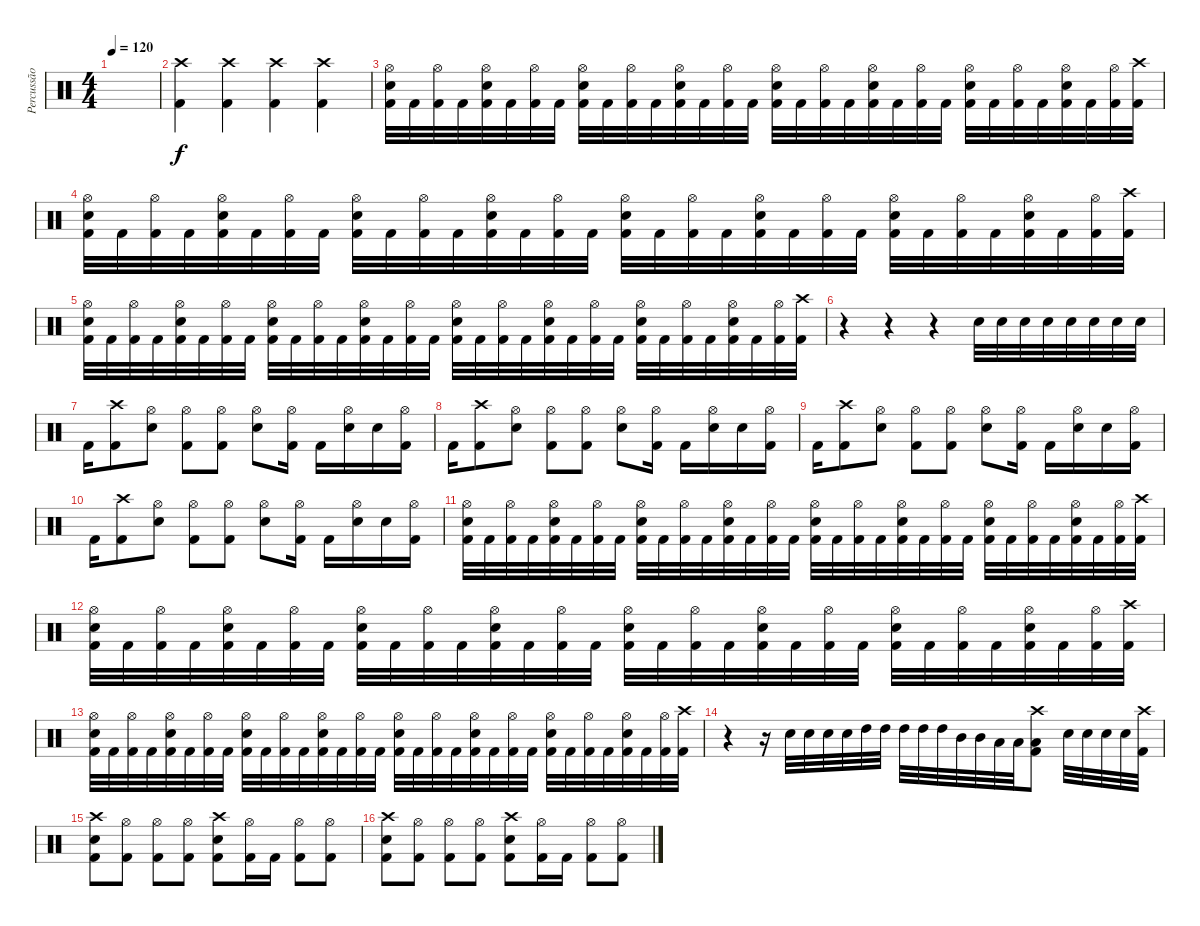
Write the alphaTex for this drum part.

\track ("Percussão" "Percussão") {instrument percussion}
\staff {score}
\articulation defaults
\ts (4 4)
\tempo 120
\clef neutral
\ks c
|
("Crash high (hit)" "Kick (hit) 2").4 ("Crash high (hit)" "Kick (hit) 2").4 ("Crash high (hit)" "Kick (hit) 2").4 ("Crash high (hit)" "Kick (hit) 2").4 |
("Hi-Hat (open)" "Snare (hit) 2" "Kick (hit) 2").32 "Kick (hit) 2".32 ("Hi-Hat (open)" "Kick (hit) 2").32 "Kick (hit) 2".32 ("Hi-Hat (open)" "Snare (hit) 2" "Kick (hit) 2").32 "Kick (hit) 2".32 ("Hi-Hat (open)" "Kick (hit) 2").32 "Kick (hit) 2".32 ("Hi-Hat (open)" "Snare (hit) 2" "Kick (hit) 2").32 "Kick (hit) 2".32 ("Hi-Hat (open)" "Kick (hit) 2").32 "Kick (hit) 2".32 ("Hi-Hat (open)" "Snare (hit) 2" "Kick (hit) 2").32 "Kick (hit) 2".32 ("Hi-Hat (open)" "Kick (hit) 2").32 "Kick (hit) 2".32 ("Hi-Hat (open)" "Snare (hit) 2" "Kick (hit) 2").32 "Kick (hit) 2".32 ("Hi-Hat (open)" "Kick (hit) 2").32 "Kick (hit) 2".32 ("Hi-Hat (open)" "Snare (hit) 2" "Kick (hit) 2").32 "Kick (hit) 2".32 ("Hi-Hat (open)" "Kick (hit) 2").32 "Kick (hit) 2".32 ("Hi-Hat (open)" "Snare (hit) 2" "Kick (hit) 2").32 "Kick (hit) 2".32 ("Hi-Hat (open)" "Kick (hit) 2").32 "Kick (hit) 2".32 ("Hi-Hat (open)" "Snare (hit) 2" "Kick (hit) 2").32 "Kick (hit) 2".32 ("Hi-Hat (open)" "Kick (hit) 2").32 ("Crash high (hit)" "Kick (hit) 2").32 |
("Hi-Hat (open)" "Snare (hit) 2" "Kick (hit) 2").32 "Kick (hit) 2".32 ("Hi-Hat (open)" "Kick (hit) 2").32 "Kick (hit) 2".32 ("Hi-Hat (open)" "Snare (hit) 2" "Kick (hit) 2").32 "Kick (hit) 2".32 ("Hi-Hat (open)" "Kick (hit) 2").32 "Kick (hit) 2".32 ("Hi-Hat (open)" "Snare (hit) 2" "Kick (hit) 2").32 "Kick (hit) 2".32 ("Hi-Hat (open)" "Kick (hit) 2").32 "Kick (hit) 2".32 ("Hi-Hat (open)" "Snare (hit) 2" "Kick (hit) 2").32 "Kick (hit) 2".32 ("Hi-Hat (open)" "Kick (hit) 2").32 "Kick (hit) 2".32 ("Hi-Hat (open)" "Snare (hit) 2" "Kick (hit) 2").32 "Kick (hit) 2".32 ("Hi-Hat (open)" "Kick (hit) 2").32 "Kick (hit) 2".32 ("Hi-Hat (open)" "Snare (hit) 2" "Kick (hit) 2").32 "Kick (hit) 2".32 ("Hi-Hat (open)" "Kick (hit) 2").32 "Kick (hit) 2".32 ("Hi-Hat (open)" "Snare (hit) 2" "Kick (hit) 2").32 "Kick (hit) 2".32 ("Hi-Hat (open)" "Kick (hit) 2").32 "Kick (hit) 2".32 ("Hi-Hat (open)" "Snare (hit) 2" "Kick (hit) 2").32 "Kick (hit) 2".32 ("Hi-Hat (open)" "Kick (hit) 2").32 ("Crash high (hit)" "Kick (hit) 2").32 |
("Hi-Hat (open)" "Snare (hit) 2" "Kick (hit) 2").32 "Kick (hit) 2".32 ("Hi-Hat (open)" "Kick (hit) 2").32 "Kick (hit) 2".32 ("Hi-Hat (open)" "Snare (hit) 2" "Kick (hit) 2").32 "Kick (hit) 2".32 ("Hi-Hat (open)" "Kick (hit) 2").32 "Kick (hit) 2".32 ("Hi-Hat (open)" "Snare (hit) 2" "Kick (hit) 2").32 "Kick (hit) 2".32 ("Hi-Hat (open)" "Kick (hit) 2").32 "Kick (hit) 2".32 ("Hi-Hat (open)" "Snare (hit) 2" "Kick (hit) 2").32 "Kick (hit) 2".32 ("Hi-Hat (open)" "Kick (hit) 2").32 "Kick (hit) 2".32 ("Hi-Hat (open)" "Snare (hit) 2" "Kick (hit) 2").32 "Kick (hit) 2".32 ("Hi-Hat (open)" "Kick (hit) 2").32 "Kick (hit) 2".32 ("Hi-Hat (open)" "Snare (hit) 2" "Kick (hit) 2").32 "Kick (hit) 2".32 ("Hi-Hat (open)" "Kick (hit) 2").32 "Kick (hit) 2".32 ("Hi-Hat (open)" "Snare (hit) 2" "Kick (hit) 2").32 "Kick (hit) 2".32 ("Hi-Hat (open)" "Kick (hit) 2").32 "Kick (hit) 2".32 ("Hi-Hat (open)" "Snare (hit) 2" "Kick (hit) 2").32 "Kick (hit) 2".32 ("Hi-Hat (open)" "Kick (hit) 2").32 ("Crash high (hit)" "Kick (hit) 2").32 |
r.4 r.4 r.4 "Snare (hit) 2".32 "Snare (hit) 2".32 "Snare (hit) 2".32 "Snare (hit) 2".32 "Snare (hit) 2".32 "Snare (hit) 2".32 "Snare (hit) 2".32 "Snare (hit) 2".32 |
"Kick (hit) 2".16 ("Crash high (hit)" "Kick (hit) 2").8 ("Hi-Hat (open)" "Snare (hit) 2").8 ("Hi-Hat (open)" "Kick (hit) 2").8 ("Hi-Hat (open)" "Kick (hit) 2").8 ("Hi-Hat (open)" "Snare (hit) 2").8 ("Hi-Hat (open)" "Kick (hit) 2").16 "Kick (hit) 2".16 ("Hi-Hat (open)" "Snare (hit) 2").16 "Snare (hit) 2".16 ("Hi-Hat (open)" "Kick (hit) 2").16 |
"Kick (hit) 2".16 ("Crash high (hit)" "Kick (hit) 2").8 ("Hi-Hat (open)" "Snare (hit) 2").8 ("Hi-Hat (open)" "Kick (hit) 2").8 ("Hi-Hat (open)" "Kick (hit) 2").8 ("Hi-Hat (open)" "Snare (hit) 2").8 ("Hi-Hat (open)" "Kick (hit) 2").16 "Kick (hit) 2".16 ("Hi-Hat (open)" "Snare (hit) 2").16 "Snare (hit) 2".16 ("Hi-Hat (open)" "Kick (hit) 2").16 |
"Kick (hit) 2".16 ("Crash high (hit)" "Kick (hit) 2").8 ("Hi-Hat (open)" "Snare (hit) 2").8 ("Hi-Hat (open)" "Kick (hit) 2").8 ("Hi-Hat (open)" "Kick (hit) 2").8 ("Hi-Hat (open)" "Snare (hit) 2").8 ("Hi-Hat (open)" "Kick (hit) 2").16 "Kick (hit) 2".16 ("Hi-Hat (open)" "Snare (hit) 2").16 "Snare (hit) 2".16 ("Hi-Hat (open)" "Kick (hit) 2").16 |
"Kick (hit) 2".16 ("Crash high (hit)" "Kick (hit) 2").8 ("Hi-Hat (open)" "Snare (hit) 2").8 ("Hi-Hat (open)" "Kick (hit) 2").8 ("Hi-Hat (open)" "Kick (hit) 2").8 ("Hi-Hat (open)" "Snare (hit) 2").8 ("Hi-Hat (open)" "Kick (hit) 2").16 "Kick (hit) 2".16 ("Hi-Hat (open)" "Snare (hit) 2").16 "Snare (hit) 2".16 ("Hi-Hat (open)" "Kick (hit) 2").16 |
("Hi-Hat (open)" "Snare (hit) 2" "Kick (hit) 2").32 "Kick (hit) 2".32 ("Hi-Hat (open)" "Kick (hit) 2").32 "Kick (hit) 2".32 ("Hi-Hat (open)" "Snare (hit) 2" "Kick (hit) 2").32 "Kick (hit) 2".32 ("Hi-Hat (open)" "Kick (hit) 2").32 "Kick (hit) 2".32 ("Hi-Hat (open)" "Snare (hit) 2" "Kick (hit) 2").32 "Kick (hit) 2".32 ("Hi-Hat (open)" "Kick (hit) 2").32 "Kick (hit) 2".32 ("Hi-Hat (open)" "Snare (hit) 2" "Kick (hit) 2").32 "Kick (hit) 2".32 ("Hi-Hat (open)" "Kick (hit) 2").32 "Kick (hit) 2".32 ("Hi-Hat (open)" "Snare (hit) 2" "Kick (hit) 2").32 "Kick (hit) 2".32 ("Hi-Hat (open)" "Kick (hit) 2").32 "Kick (hit) 2".32 ("Hi-Hat (open)" "Snare (hit) 2" "Kick (hit) 2").32 "Kick (hit) 2".32 ("Hi-Hat (open)" "Kick (hit) 2").32 "Kick (hit) 2".32 ("Hi-Hat (open)" "Snare (hit) 2" "Kick (hit) 2").32 "Kick (hit) 2".32 ("Hi-Hat (open)" "Kick (hit) 2").32 "Kick (hit) 2".32 ("Hi-Hat (open)" "Snare (hit) 2" "Kick (hit) 2").32 "Kick (hit) 2".32 ("Hi-Hat (open)" "Kick (hit) 2").32 ("Crash high (hit)" "Kick (hit) 2").32 |
("Hi-Hat (open)" "Snare (hit) 2" "Kick (hit) 2").32 "Kick (hit) 2".32 ("Hi-Hat (open)" "Kick (hit) 2").32 "Kick (hit) 2".32 ("Hi-Hat (open)" "Snare (hit) 2" "Kick (hit) 2").32 "Kick (hit) 2".32 ("Hi-Hat (open)" "Kick (hit) 2").32 "Kick (hit) 2".32 ("Hi-Hat (open)" "Snare (hit) 2" "Kick (hit) 2").32 "Kick (hit) 2".32 ("Hi-Hat (open)" "Kick (hit) 2").32 "Kick (hit) 2".32 ("Hi-Hat (open)" "Snare (hit) 2" "Kick (hit) 2").32 "Kick (hit) 2".32 ("Hi-Hat (open)" "Kick (hit) 2").32 "Kick (hit) 2".32 ("Hi-Hat (open)" "Snare (hit) 2" "Kick (hit) 2").32 "Kick (hit) 2".32 ("Hi-Hat (open)" "Kick (hit) 2").32 "Kick (hit) 2".32 ("Hi-Hat (open)" "Snare (hit) 2" "Kick (hit) 2").32 "Kick (hit) 2".32 ("Hi-Hat (open)" "Kick (hit) 2").32 "Kick (hit) 2".32 ("Hi-Hat (open)" "Snare (hit) 2" "Kick (hit) 2").32 "Kick (hit) 2".32 ("Hi-Hat (open)" "Kick (hit) 2").32 "Kick (hit) 2".32 ("Hi-Hat (open)" "Snare (hit) 2" "Kick (hit) 2").32 "Kick (hit) 2".32 ("Hi-Hat (open)" "Kick (hit) 2").32 ("Crash high (hit)" "Kick (hit) 2").32 |
("Hi-Hat (open)" "Snare (hit) 2" "Kick (hit) 2").32 "Kick (hit) 2".32 ("Hi-Hat (open)" "Kick (hit) 2").32 "Kick (hit) 2".32 ("Hi-Hat (open)" "Snare (hit) 2" "Kick (hit) 2").32 "Kick (hit) 2".32 ("Hi-Hat (open)" "Kick (hit) 2").32 "Kick (hit) 2".32 ("Hi-Hat (open)" "Snare (hit) 2" "Kick (hit) 2").32 "Kick (hit) 2".32 ("Hi-Hat (open)" "Kick (hit) 2").32 "Kick (hit) 2".32 ("Hi-Hat (open)" "Snare (hit) 2" "Kick (hit) 2").32 "Kick (hit) 2".32 ("Hi-Hat (open)" "Kick (hit) 2").32 "Kick (hit) 2".32 ("Hi-Hat (open)" "Snare (hit) 2" "Kick (hit) 2").32 "Kick (hit) 2".32 ("Hi-Hat (open)" "Kick (hit) 2").32 "Kick (hit) 2".32 ("Hi-Hat (open)" "Snare (hit) 2" "Kick (hit) 2").32 "Kick (hit) 2".32 ("Hi-Hat (open)" "Kick (hit) 2").32 "Kick (hit) 2".32 ("Hi-Hat (open)" "Snare (hit) 2" "Kick (hit) 2").32 "Kick (hit) 2".32 ("Hi-Hat (open)" "Kick (hit) 2").32 "Kick (hit) 2".32 ("Hi-Hat (open)" "Snare (hit) 2" "Kick (hit) 2").32 "Kick (hit) 2".32 ("Hi-Hat (open)" "Kick (hit) 2").32 ("Crash high (hit)" "Kick (hit) 2").32 |
r.4 r.16 "Snare (hit) 2".32 "Snare (hit) 2".32 "Snare (hit) 2".32 "Snare (hit) 2".32 "High Tom (hit)".32 "High Tom (hit)".32 "High Tom (hit)".32 "High Tom (hit)".32 "High Tom (hit)".32 "Mid Tom (hit)".32 "Mid Tom (hit)".32 "Low Tom (hit)".32 "Low Tom (hit)".32 ("Crash high (hit)" "Low Tom (hit)" "Kick (hit) 2").8 "Snare (hit) 2".32 "Snare (hit) 2".32 "Snare (hit) 2".32 "Snare (hit) 2".32 ("Crash high (hit)" "Kick (hit) 2").32 |
("Crash high (hit)" "Snare (hit) 2" "Kick (hit) 2").8 ("Hi-Hat (open)" "Kick (hit) 2").8 ("Hi-Hat (open)" "Kick (hit) 2").8 ("Hi-Hat (open)" "Kick (hit) 2").8 ("Crash high (hit)" "Snare (hit) 2" "Kick (hit) 2").8 ("Hi-Hat (open)" "Kick (hit) 2").16 "Kick (hit) 2".16 ("Hi-Hat (open)" "Kick (hit) 2").8 ("Hi-Hat (open)" "Kick (hit) 2").8 |
("Crash high (hit)" "Snare (hit) 2" "Kick (hit) 2").8 ("Hi-Hat (open)" "Kick (hit) 2").8 ("Hi-Hat (open)" "Kick (hit) 2").8 ("Hi-Hat (open)" "Kick (hit) 2").8 ("Crash high (hit)" "Snare (hit) 2" "Kick (hit) 2").8 ("Hi-Hat (open)" "Kick (hit) 2").16 "Kick (hit) 2".16 ("Hi-Hat (open)" "Kick (hit) 2").8 ("Hi-Hat (open)" "Kick (hit) 2").8
